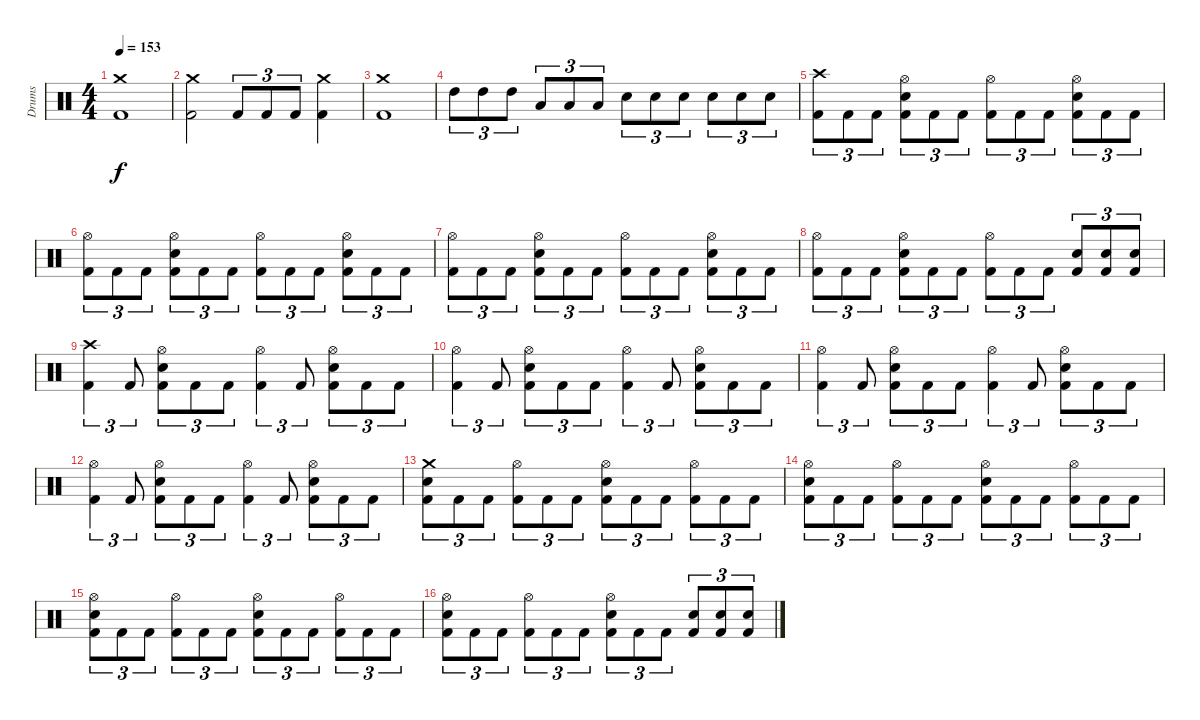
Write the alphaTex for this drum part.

\track ("Drums" "Drums") {instrument percussion}
\staff {score}
\articulation defaults
\ts (4 4)
\tempo 153
\clef neutral
\ks c
("Crash medium (hit)" "Kick (hit) 2").1{dy f} |
("Crash medium (hit)" "Kick (hit) 2").2 "Kick (hit) 2".8{tu (3 2)} "Kick (hit) 2".8{tu (3 2)} "Kick (hit) 2".8{tu (3 2)} ("Crash medium (hit)" "Kick (hit) 2").4 |
("Crash medium (hit)" "Kick (hit) 2").1 |
"High Tom (hit)".8{tu (3 2)} "High Tom (hit)".8{tu (3 2)} "High Tom (hit)".8{tu (3 2)} "Low Tom (hit)".8{tu (3 2)} "Low Tom (hit)".8{tu (3 2)} "Low Tom (hit)".8{tu (3 2)} "Electric Snare (hit)".8{tu (3 2)} "Electric Snare (hit)".8{tu (3 2)} "Electric Snare (hit)".8{tu (3 2)} "Electric Snare (hit)".8{tu (3 2)} "Electric Snare (hit)".8{tu (3 2)} "Electric Snare (hit)".8{tu (3 2)} |
("Crash high (hit)" "Kick (hit) 2").8{tu (3 2)} "Kick (hit) 2".8{tu (3 2)} "Kick (hit) 2".8{tu (3 2)} ("Hi-Hat (open)" "Electric Snare (hit)" "Kick (hit) 2").8{tu (3 2)} "Kick (hit) 2".8{tu (3 2)} "Kick (hit) 2".8{tu (3 2)} ("Hi-Hat (open)" "Kick (hit) 2").8{tu (3 2)} "Kick (hit) 2".8{tu (3 2)} "Kick (hit) 2".8{tu (3 2)} ("Hi-Hat (open)" "Electric Snare (hit)" "Kick (hit) 2").8{tu (3 2)} "Kick (hit) 2".8{tu (3 2)} "Kick (hit) 2".8{tu (3 2)} |
("Hi-Hat (open)" "Kick (hit) 2").8{tu (3 2)} "Kick (hit) 2".8{tu (3 2)} "Kick (hit) 2".8{tu (3 2)} ("Hi-Hat (open)" "Electric Snare (hit)" "Kick (hit) 2").8{tu (3 2)} "Kick (hit) 2".8{tu (3 2)} "Kick (hit) 2".8{tu (3 2)} ("Hi-Hat (open)" "Kick (hit) 2").8{tu (3 2)} "Kick (hit) 2".8{tu (3 2)} "Kick (hit) 2".8{tu (3 2)} ("Hi-Hat (open)" "Electric Snare (hit)" "Kick (hit) 2").8{tu (3 2)} "Kick (hit) 2".8{tu (3 2)} "Kick (hit) 2".8{tu (3 2)} |
("Hi-Hat (open)" "Kick (hit) 2").8{tu (3 2)} "Kick (hit) 2".8{tu (3 2)} "Kick (hit) 2".8{tu (3 2)} ("Hi-Hat (open)" "Electric Snare (hit)" "Kick (hit) 2").8{tu (3 2)} "Kick (hit) 2".8{tu (3 2)} "Kick (hit) 2".8{tu (3 2)} ("Hi-Hat (open)" "Kick (hit) 2").8{tu (3 2)} "Kick (hit) 2".8{tu (3 2)} "Kick (hit) 2".8{tu (3 2)} ("Hi-Hat (open)" "Electric Snare (hit)" "Kick (hit) 2").8{tu (3 2)} "Kick (hit) 2".8{tu (3 2)} "Kick (hit) 2".8{tu (3 2)} |
("Hi-Hat (open)" "Kick (hit) 2").8{tu (3 2)} "Kick (hit) 2".8{tu (3 2)} "Kick (hit) 2".8{tu (3 2)} ("Hi-Hat (open)" "Electric Snare (hit)" "Kick (hit) 2").8{tu (3 2)} "Kick (hit) 2".8{tu (3 2)} "Kick (hit) 2".8{tu (3 2)} ("Hi-Hat (open)" "Kick (hit) 2").8{tu (3 2)} "Kick (hit) 2".8{tu (3 2)} "Kick (hit) 2".8{tu (3 2)} ("Electric Snare (hit)" "Kick (hit) 2").8{tu (3 2)} ("Electric Snare (hit)" "Kick (hit) 2").8{tu (3 2)} ("Electric Snare (hit)" "Kick (hit) 2").8{tu (3 2)} |
("Crash high (hit)" "Kick (hit) 2").4{tu (3 2)} "Kick (hit) 2".8{tu (3 2)} ("Hi-Hat (open)" "Electric Snare (hit)" "Kick (hit) 2").8{tu (3 2)} "Kick (hit) 2".8{tu (3 2)} "Kick (hit) 2".8{tu (3 2)} ("Hi-Hat (open)" "Kick (hit) 2").4{tu (3 2)} "Kick (hit) 2".8{tu (3 2)} ("Hi-Hat (open)" "Electric Snare (hit)" "Kick (hit) 2").8{tu (3 2)} "Kick (hit) 2".8{tu (3 2)} "Kick (hit) 2".8{tu (3 2)} |
("Hi-Hat (open)" "Kick (hit) 2").4{tu (3 2)} "Kick (hit) 2".8{tu (3 2)} ("Hi-Hat (open)" "Electric Snare (hit)" "Kick (hit) 2").8{tu (3 2)} "Kick (hit) 2".8{tu (3 2)} "Kick (hit) 2".8{tu (3 2)} ("Hi-Hat (open)" "Kick (hit) 2").4{tu (3 2)} "Kick (hit) 2".8{tu (3 2)} ("Hi-Hat (open)" "Electric Snare (hit)" "Kick (hit) 2").8{tu (3 2)} "Kick (hit) 2".8{tu (3 2)} "Kick (hit) 2".8{tu (3 2)} |
("Hi-Hat (open)" "Kick (hit) 2").4{tu (3 2)} "Kick (hit) 2".8{tu (3 2)} ("Hi-Hat (open)" "Electric Snare (hit)" "Kick (hit) 2").8{tu (3 2)} "Kick (hit) 2".8{tu (3 2)} "Kick (hit) 2".8{tu (3 2)} ("Hi-Hat (open)" "Kick (hit) 2").4{tu (3 2)} "Kick (hit) 2".8{tu (3 2)} ("Hi-Hat (open)" "Electric Snare (hit)" "Kick (hit) 2").8{tu (3 2)} "Kick (hit) 2".8{tu (3 2)} "Kick (hit) 2".8{tu (3 2)} |
("Hi-Hat (open)" "Kick (hit) 2").4{tu (3 2)} "Kick (hit) 2".8{tu (3 2)} ("Hi-Hat (open)" "Electric Snare (hit)" "Kick (hit) 2").8{tu (3 2)} "Kick (hit) 2".8{tu (3 2)} "Kick (hit) 2".8{tu (3 2)} ("Hi-Hat (open)" "Kick (hit) 2").4{tu (3 2)} "Kick (hit) 2".8{tu (3 2)} ("Hi-Hat (open)" "Electric Snare (hit)" "Kick (hit) 2").8{tu (3 2)} "Kick (hit) 2".8{tu (3 2)} "Kick (hit) 2".8{tu (3 2)} |
("Crash medium (hit)" "Electric Snare (hit)" "Kick (hit) 2").8{tu (3 2)} "Kick (hit) 2".8{tu (3 2)} "Kick (hit) 2".8{tu (3 2)} ("Hi-Hat (open)" "Kick (hit) 2").8{tu (3 2)} "Kick (hit) 2".8{tu (3 2)} "Kick (hit) 2".8{tu (3 2)} ("Hi-Hat (open)" "Electric Snare (hit)" "Kick (hit) 2").8{tu (3 2)} "Kick (hit) 2".8{tu (3 2)} "Kick (hit) 2".8{tu (3 2)} ("Hi-Hat (open)" "Kick (hit) 2").8{tu (3 2)} "Kick (hit) 2".8{tu (3 2)} "Kick (hit) 2".8{tu (3 2)} |
("Hi-Hat (open)" "Electric Snare (hit)" "Kick (hit) 2").8{tu (3 2)} "Kick (hit) 2".8{tu (3 2)} "Kick (hit) 2".8{tu (3 2)} ("Hi-Hat (open)" "Kick (hit) 2").8{tu (3 2)} "Kick (hit) 2".8{tu (3 2)} "Kick (hit) 2".8{tu (3 2)} ("Hi-Hat (open)" "Electric Snare (hit)" "Kick (hit) 2").8{tu (3 2)} "Kick (hit) 2".8{tu (3 2)} "Kick (hit) 2".8{tu (3 2)} ("Hi-Hat (open)" "Kick (hit) 2").8{tu (3 2)} "Kick (hit) 2".8{tu (3 2)} "Kick (hit) 2".8{tu (3 2)} |
("Hi-Hat (open)" "Electric Snare (hit)" "Kick (hit) 2").8{tu (3 2)} "Kick (hit) 2".8{tu (3 2)} "Kick (hit) 2".8{tu (3 2)} ("Hi-Hat (open)" "Kick (hit) 2").8{tu (3 2)} "Kick (hit) 2".8{tu (3 2)} "Kick (hit) 2".8{tu (3 2)} ("Hi-Hat (open)" "Electric Snare (hit)" "Kick (hit) 2").8{tu (3 2)} "Kick (hit) 2".8{tu (3 2)} "Kick (hit) 2".8{tu (3 2)} ("Hi-Hat (open)" "Kick (hit) 2").8{tu (3 2)} "Kick (hit) 2".8{tu (3 2)} "Kick (hit) 2".8{tu (3 2)} |
("Hi-Hat (open)" "Electric Snare (hit)" "Kick (hit) 2").8{tu (3 2)} "Kick (hit) 2".8{tu (3 2)} "Kick (hit) 2".8{tu (3 2)} ("Hi-Hat (open)" "Kick (hit) 2").8{tu (3 2)} "Kick (hit) 2".8{tu (3 2)} "Kick (hit) 2".8{tu (3 2)} ("Hi-Hat (open)" "Electric Snare (hit)" "Kick (hit) 2").8{tu (3 2)} "Kick (hit) 2".8{tu (3 2)} "Kick (hit) 2".8{tu (3 2)} ("Electric Snare (hit)" "Kick (hit) 2").8{tu (3 2)} ("Electric Snare (hit)" "Kick (hit) 2").8{tu (3 2)} ("Electric Snare (hit)" "Kick (hit) 2").8{tu (3 2)}
